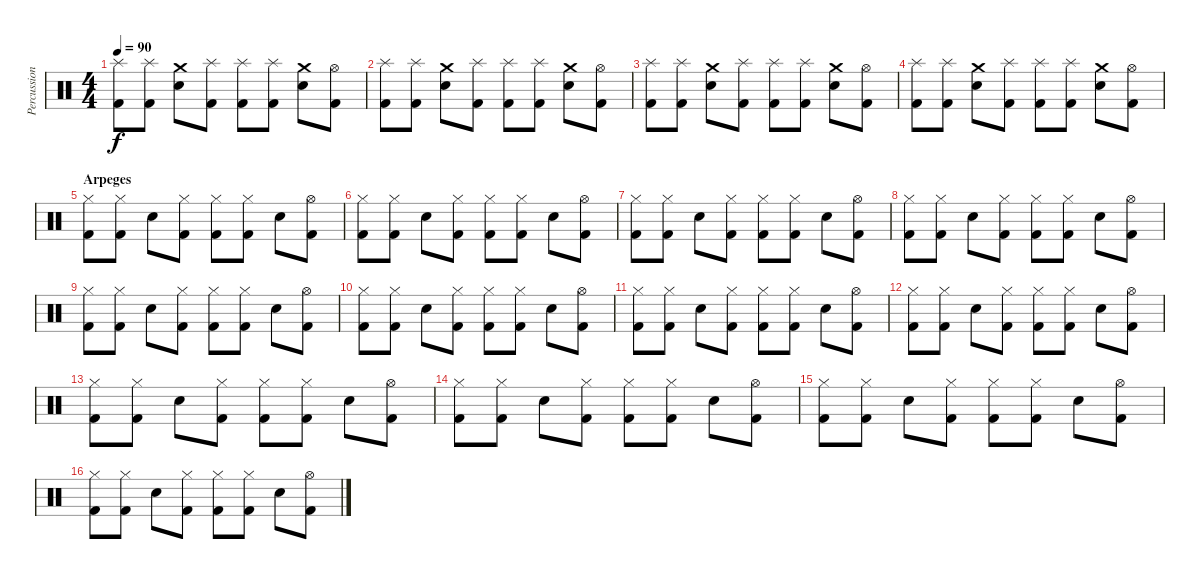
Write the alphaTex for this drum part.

\track ("Percussions" "Percussion") {instrument percussion}
\staff {score}
\articulation defaults
\ts (4 4)
\tempo 90
\clef neutral
\ks c
("Splash (hit)" "Kick (hit) 2").8{dy f} ("Splash (hit)" "Kick (hit) 2").8 ("Crash medium (hit)" "Snare (hit) 2").8 ("Splash (hit)" "Kick (hit) 2").8 ("Splash (hit)" "Kick (hit) 2").8 ("Splash (hit)" "Kick (hit) 2").8 ("Crash medium (hit)" "Snare (hit) 2").8 ("Hi-Hat (open)" "Kick (hit) 2").8 |
("Splash (hit)" "Kick (hit) 2").8 ("Splash (hit)" "Kick (hit) 2").8 ("Crash medium (hit)" "Snare (hit) 2").8 ("Splash (hit)" "Kick (hit) 2").8 ("Splash (hit)" "Kick (hit) 2").8 ("Splash (hit)" "Kick (hit) 2").8 ("Crash medium (hit)" "Snare (hit) 2").8 ("Hi-Hat (open)" "Kick (hit) 2").8 |
("Splash (hit)" "Kick (hit) 2").8 ("Splash (hit)" "Kick (hit) 2").8 ("Crash medium (hit)" "Snare (hit) 2").8 ("Splash (hit)" "Kick (hit) 2").8 ("Splash (hit)" "Kick (hit) 2").8 ("Splash (hit)" "Kick (hit) 2").8 ("Crash medium (hit)" "Snare (hit) 2").8 ("Hi-Hat (open)" "Kick (hit) 2").8 |
("Splash (hit)" "Kick (hit) 2").8 ("Splash (hit)" "Kick (hit) 2").8 ("Crash medium (hit)" "Snare (hit) 2").8 ("Splash (hit)" "Kick (hit) 2").8 ("Splash (hit)" "Kick (hit) 2").8 ("Splash (hit)" "Kick (hit) 2").8 ("Crash medium (hit)" "Snare (hit) 2").8 ("Hi-Hat (open)" "Kick (hit) 2").8 |
\section ("" "Arpeges")
("Hi-Hat (closed)" "Kick (hit) 2").8 ("Hi-Hat (closed)" "Kick (hit) 2").8 "Snare (hit) 2".8 ("Hi-Hat (closed)" "Kick (hit) 2").8 ("Hi-Hat (closed)" "Kick (hit) 2").8 ("Hi-Hat (closed)" "Kick (hit) 2").8 "Snare (hit) 2".8 ("Hi-Hat (open)" "Kick (hit) 2").8 |
("Hi-Hat (closed)" "Kick (hit) 2").8 ("Hi-Hat (closed)" "Kick (hit) 2").8 "Snare (hit) 2".8 ("Hi-Hat (closed)" "Kick (hit) 2").8 ("Hi-Hat (closed)" "Kick (hit) 2").8 ("Hi-Hat (closed)" "Kick (hit) 2").8 "Snare (hit) 2".8 ("Hi-Hat (open)" "Kick (hit) 2").8 |
("Hi-Hat (closed)" "Kick (hit) 2").8 ("Hi-Hat (closed)" "Kick (hit) 2").8 "Snare (hit) 2".8 ("Hi-Hat (closed)" "Kick (hit) 2").8 ("Hi-Hat (closed)" "Kick (hit) 2").8 ("Hi-Hat (closed)" "Kick (hit) 2").8 "Snare (hit) 2".8 ("Hi-Hat (open)" "Kick (hit) 2").8 |
("Hi-Hat (closed)" "Kick (hit) 2").8 ("Hi-Hat (closed)" "Kick (hit) 2").8 "Snare (hit) 2".8 ("Hi-Hat (closed)" "Kick (hit) 2").8 ("Hi-Hat (closed)" "Kick (hit) 2").8 ("Hi-Hat (closed)" "Kick (hit) 2").8 "Snare (hit) 2".8 ("Hi-Hat (open)" "Kick (hit) 2").8 |
("Hi-Hat (closed)" "Kick (hit) 2").8 ("Hi-Hat (closed)" "Kick (hit) 2").8 "Snare (hit) 2".8 ("Hi-Hat (closed)" "Kick (hit) 2").8 ("Hi-Hat (closed)" "Kick (hit) 2").8 ("Hi-Hat (closed)" "Kick (hit) 2").8 "Snare (hit) 2".8 ("Hi-Hat (open)" "Kick (hit) 2").8 |
("Hi-Hat (closed)" "Kick (hit) 2").8 ("Hi-Hat (closed)" "Kick (hit) 2").8 "Snare (hit) 2".8 ("Hi-Hat (closed)" "Kick (hit) 2").8 ("Hi-Hat (closed)" "Kick (hit) 2").8 ("Hi-Hat (closed)" "Kick (hit) 2").8 "Snare (hit) 2".8 ("Hi-Hat (open)" "Kick (hit) 2").8 |
("Hi-Hat (closed)" "Kick (hit) 2").8 ("Hi-Hat (closed)" "Kick (hit) 2").8 "Snare (hit) 2".8 ("Hi-Hat (closed)" "Kick (hit) 2").8 ("Hi-Hat (closed)" "Kick (hit) 2").8 ("Hi-Hat (closed)" "Kick (hit) 2").8 "Snare (hit) 2".8 ("Hi-Hat (open)" "Kick (hit) 2").8 |
("Hi-Hat (closed)" "Kick (hit) 2").8 ("Hi-Hat (closed)" "Kick (hit) 2").8 "Snare (hit) 2".8 ("Hi-Hat (closed)" "Kick (hit) 2").8 ("Hi-Hat (closed)" "Kick (hit) 2").8 ("Hi-Hat (closed)" "Kick (hit) 2").8 "Snare (hit) 2".8 ("Hi-Hat (open)" "Kick (hit) 2").8 |
("Hi-Hat (closed)" "Kick (hit) 2").8 ("Hi-Hat (closed)" "Kick (hit) 2").8 "Snare (hit) 2".8 ("Hi-Hat (closed)" "Kick (hit) 2").8 ("Hi-Hat (closed)" "Kick (hit) 2").8 ("Hi-Hat (closed)" "Kick (hit) 2").8 "Snare (hit) 2".8 ("Hi-Hat (open)" "Kick (hit) 2").8 |
("Hi-Hat (closed)" "Kick (hit) 2").8 ("Hi-Hat (closed)" "Kick (hit) 2").8 "Snare (hit) 2".8 ("Hi-Hat (closed)" "Kick (hit) 2").8 ("Hi-Hat (closed)" "Kick (hit) 2").8 ("Hi-Hat (closed)" "Kick (hit) 2").8 "Snare (hit) 2".8 ("Hi-Hat (open)" "Kick (hit) 2").8 |
("Hi-Hat (closed)" "Kick (hit) 2").8 ("Hi-Hat (closed)" "Kick (hit) 2").8 "Snare (hit) 2".8 ("Hi-Hat (closed)" "Kick (hit) 2").8 ("Hi-Hat (closed)" "Kick (hit) 2").8 ("Hi-Hat (closed)" "Kick (hit) 2").8 "Snare (hit) 2".8 ("Hi-Hat (open)" "Kick (hit) 2").8 |
("Hi-Hat (closed)" "Kick (hit) 2").8 ("Hi-Hat (closed)" "Kick (hit) 2").8 "Snare (hit) 2".8 ("Hi-Hat (closed)" "Kick (hit) 2").8 ("Hi-Hat (closed)" "Kick (hit) 2").8 ("Hi-Hat (closed)" "Kick (hit) 2").8 "Snare (hit) 2".8 ("Hi-Hat (open)" "Kick (hit) 2").8
